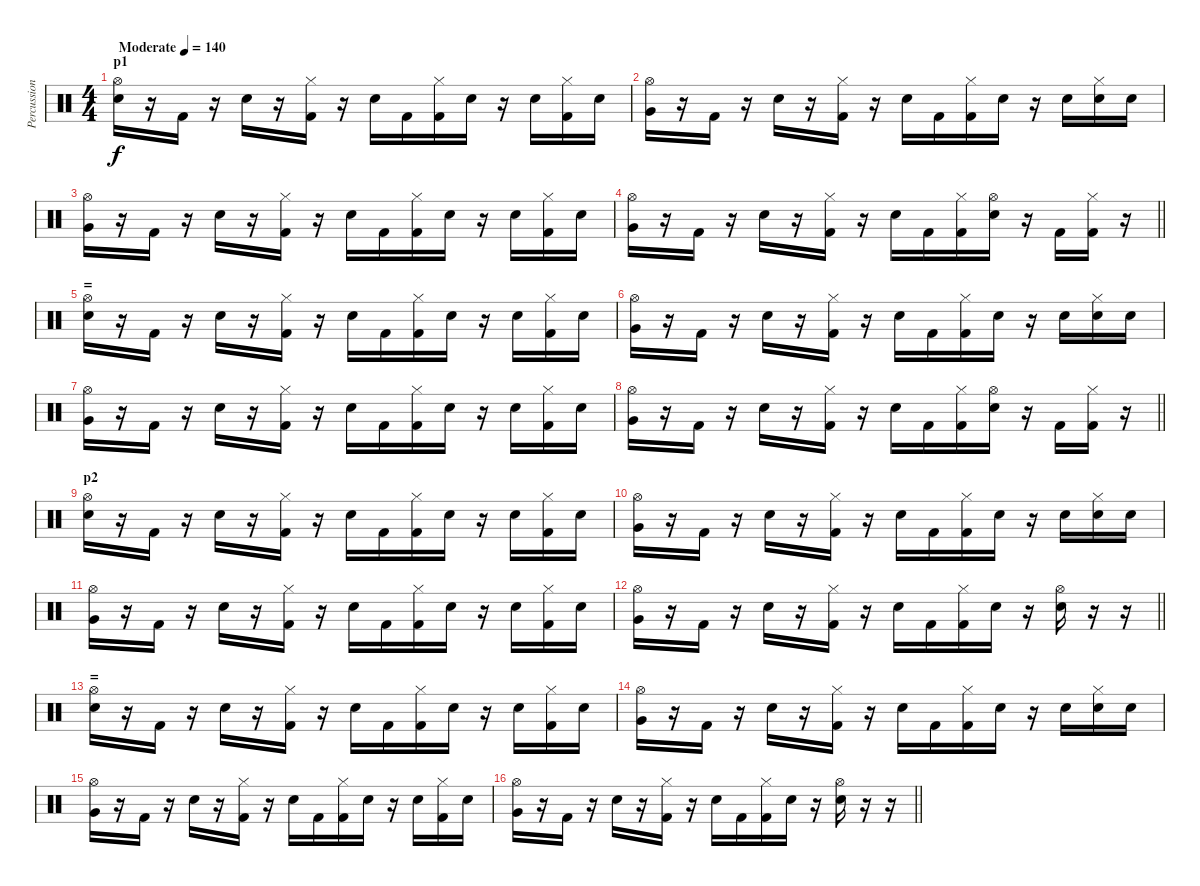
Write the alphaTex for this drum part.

\track ("Percussion" "Percussion") {instrument percussion}
\staff {score}
\articulation defaults
\ts (4 4)
\section ("" "p1")
\tempo (140 "Moderate")
\clef neutral
\ks c
("Electric Snare (hit)" "Hi-Hat (open)").16{dy f} r.16 "Kick (hit) 2".16 r.16 "Electric Snare (hit)".16 r.16 ("Kick (hit) 2" "Hi-Hat (closed)").16 r.16 "Electric Snare (hit)".16 "Kick (hit) 2".16 ("Kick (hit) 2" "Hi-Hat (closed)").16 "Electric Snare (hit)".16 r.16 "Electric Snare (hit)".16 ("Kick (hit) 2" "Hi-Hat (closed)").16 "Electric Snare (hit)".16 |
("Very Low Tom (hit)" "Hi-Hat (open)").16 r.16 "Kick (hit) 2".16 r.16 "Electric Snare (hit)".16 r.16 ("Kick (hit) 2" "Hi-Hat (closed)").16 r.16 "Electric Snare (hit)".16 "Kick (hit) 2".16 ("Kick (hit) 2" "Hi-Hat (closed)").16 "Electric Snare (hit)".16 r.16 "Electric Snare (hit)".16 ("Electric Snare (hit)" "Hi-Hat (closed)").16 "Electric Snare (hit)".16 |
("Very Low Tom (hit)" "Hi-Hat (open)").16 r.16 "Kick (hit) 2".16 r.16 "Electric Snare (hit)".16 r.16 ("Kick (hit) 2" "Hi-Hat (closed)").16 r.16 "Electric Snare (hit)".16 "Kick (hit) 2".16 ("Kick (hit) 2" "Hi-Hat (closed)").16 "Electric Snare (hit)".16 r.16 "Electric Snare (hit)".16 ("Kick (hit) 2" "Hi-Hat (closed)").16 "Electric Snare (hit)".16 |
\barLineRight lightlight
("Very Low Tom (hit)" "Hi-Hat (open)").16 r.16 "Kick (hit) 2".16 r.16 "Electric Snare (hit)".16 r.16 ("Kick (hit) 2" "Hi-Hat (closed)").16 r.16 "Electric Snare (hit)".16 "Kick (hit) 2".16 ("Kick (hit) 2" "Hi-Hat (closed)").16 ("Electric Snare (hit)" "Hi-Hat (open)").16 r.16 "Kick (hit) 2".16 ("Kick (hit) 2" "Hi-Hat (closed)").16 r.16 |
\section ("" "=")
("Electric Snare (hit)" "Hi-Hat (open)").16 r.16 "Kick (hit) 2".16 r.16 "Electric Snare (hit)".16 r.16 ("Kick (hit) 2" "Hi-Hat (closed)").16 r.16 "Electric Snare (hit)".16 "Kick (hit) 2".16 ("Kick (hit) 2" "Hi-Hat (closed)").16 "Electric Snare (hit)".16 r.16 "Electric Snare (hit)".16 ("Kick (hit) 2" "Hi-Hat (closed)").16 "Electric Snare (hit)".16 |
("Very Low Tom (hit)" "Hi-Hat (open)").16 r.16 "Kick (hit) 2".16 r.16 "Electric Snare (hit)".16 r.16 ("Kick (hit) 2" "Hi-Hat (closed)").16 r.16 "Electric Snare (hit)".16 "Kick (hit) 2".16 ("Kick (hit) 2" "Hi-Hat (closed)").16 "Electric Snare (hit)".16 r.16 "Electric Snare (hit)".16 ("Electric Snare (hit)" "Hi-Hat (closed)").16 "Electric Snare (hit)".16 |
("Very Low Tom (hit)" "Hi-Hat (open)").16 r.16 "Kick (hit) 2".16 r.16 "Electric Snare (hit)".16 r.16 ("Kick (hit) 2" "Hi-Hat (closed)").16 r.16 "Electric Snare (hit)".16 "Kick (hit) 2".16 ("Kick (hit) 2" "Hi-Hat (closed)").16 "Electric Snare (hit)".16 r.16 "Electric Snare (hit)".16 ("Kick (hit) 2" "Hi-Hat (closed)").16 "Electric Snare (hit)".16 |
\barLineRight lightlight
("Very Low Tom (hit)" "Hi-Hat (open)").16 r.16 "Kick (hit) 2".16 r.16 "Electric Snare (hit)".16 r.16 ("Kick (hit) 2" "Hi-Hat (closed)").16 r.16 "Electric Snare (hit)".16 "Kick (hit) 2".16 ("Kick (hit) 2" "Hi-Hat (closed)").16 ("Electric Snare (hit)" "Hi-Hat (open)").16 r.16 "Kick (hit) 2".16 ("Kick (hit) 2" "Hi-Hat (closed)").16 r.16 |
\section ("" "p2")
("Electric Snare (hit)" "Hi-Hat (open)").16 r.16 "Kick (hit) 2".16 r.16 "Electric Snare (hit)".16 r.16 ("Kick (hit) 2" "Hi-Hat (closed)").16 r.16 "Electric Snare (hit)".16 "Kick (hit) 2".16 ("Kick (hit) 2" "Hi-Hat (closed)").16 "Electric Snare (hit)".16 r.16 "Electric Snare (hit)".16 ("Kick (hit) 2" "Hi-Hat (closed)").16 "Electric Snare (hit)".16 |
("Very Low Tom (hit)" "Hi-Hat (open)").16 r.16 "Kick (hit) 2".16 r.16 "Electric Snare (hit)".16 r.16 ("Kick (hit) 2" "Hi-Hat (closed)").16 r.16 "Electric Snare (hit)".16 "Kick (hit) 2".16 ("Kick (hit) 2" "Hi-Hat (closed)").16 "Electric Snare (hit)".16 r.16 "Electric Snare (hit)".16 ("Electric Snare (hit)" "Hi-Hat (closed)").16 "Electric Snare (hit)".16 |
("Very Low Tom (hit)" "Hi-Hat (open)").16 r.16 "Kick (hit) 2".16 r.16 "Electric Snare (hit)".16 r.16 ("Kick (hit) 2" "Hi-Hat (closed)").16 r.16 "Electric Snare (hit)".16 "Kick (hit) 2".16 ("Kick (hit) 2" "Hi-Hat (closed)").16 "Electric Snare (hit)".16 r.16 "Electric Snare (hit)".16 ("Kick (hit) 2" "Hi-Hat (closed)").16 "Electric Snare (hit)".16 |
\barLineRight lightlight
("Very Low Tom (hit)" "Hi-Hat (open)").16 r.16 "Kick (hit) 2".16 r.16 "Electric Snare (hit)".16 r.16 ("Kick (hit) 2" "Hi-Hat (closed)").16 r.16 "Electric Snare (hit)".16 "Kick (hit) 2".16 ("Kick (hit) 2" "Hi-Hat (closed)").16 "Electric Snare (hit)".16 r.16 ("Electric Snare (hit)" "Hi-Hat (open)").16 r.16 r.16 |
\section ("" "=")
("Electric Snare (hit)" "Hi-Hat (open)").16 r.16 "Kick (hit) 2".16 r.16 "Electric Snare (hit)".16 r.16 ("Kick (hit) 2" "Hi-Hat (closed)").16 r.16 "Electric Snare (hit)".16 "Kick (hit) 2".16 ("Kick (hit) 2" "Hi-Hat (closed)").16 "Electric Snare (hit)".16 r.16 "Electric Snare (hit)".16 ("Kick (hit) 2" "Hi-Hat (closed)").16 "Electric Snare (hit)".16 |
("Very Low Tom (hit)" "Hi-Hat (open)").16 r.16 "Kick (hit) 2".16 r.16 "Electric Snare (hit)".16 r.16 ("Kick (hit) 2" "Hi-Hat (closed)").16 r.16 "Electric Snare (hit)".16 "Kick (hit) 2".16 ("Kick (hit) 2" "Hi-Hat (closed)").16 "Electric Snare (hit)".16 r.16 "Electric Snare (hit)".16 ("Electric Snare (hit)" "Hi-Hat (closed)").16 "Electric Snare (hit)".16 |
("Very Low Tom (hit)" "Hi-Hat (open)").16 r.16 "Kick (hit) 2".16 r.16 "Electric Snare (hit)".16 r.16 ("Kick (hit) 2" "Hi-Hat (closed)").16 r.16 "Electric Snare (hit)".16 "Kick (hit) 2".16 ("Kick (hit) 2" "Hi-Hat (closed)").16 "Electric Snare (hit)".16 r.16 "Electric Snare (hit)".16 ("Kick (hit) 2" "Hi-Hat (closed)").16 "Electric Snare (hit)".16 |
\barLineRight lightlight
("Very Low Tom (hit)" "Hi-Hat (open)").16 r.16 "Kick (hit) 2".16 r.16 "Electric Snare (hit)".16 r.16 ("Kick (hit) 2" "Hi-Hat (closed)").16 r.16 "Electric Snare (hit)".16 "Kick (hit) 2".16 ("Kick (hit) 2" "Hi-Hat (closed)").16 "Electric Snare (hit)".16 r.16 ("Electric Snare (hit)" "Hi-Hat (open)").16 r.16 r.16
